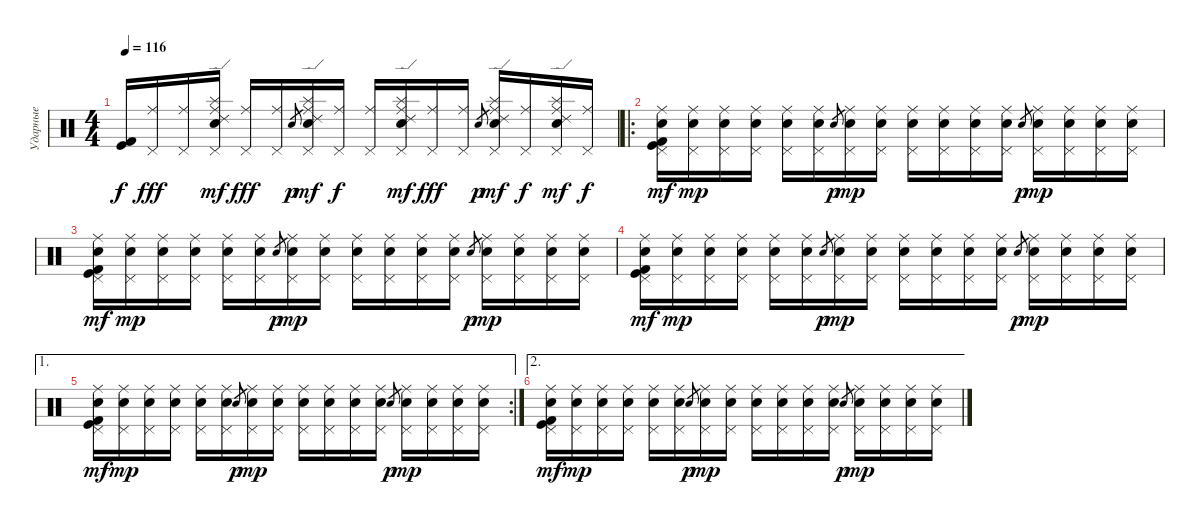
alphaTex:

\track ("Ударные" "Ударные") {instrument percussion}
\staff {score}
\articulation defaults
\ts (4 4)
\tempo 116
\clef neutral
\ks c
("Kick (hit)" "Kick (hit) 2").16{dy f} ("Ride (middle)" "Pedal Hi-Hat (hit)").16{dy fff} ("Ride (middle)" "Pedal Hi-Hat (hit)").16 ("Ride (edge) 2" "Splash (hit)" "Ride (middle)" "Pedal Hi-Hat (hit)" "Electric Snare (hit)").16{dy mf} ("Ride (middle)" "Pedal Hi-Hat (hit)").16{dy fff} ("Ride (middle)" "Pedal Hi-Hat (hit)").16 "Electric Snare (hit)".8{gr dy p} ("Ride (edge) 2" "Splash (hit)" "Ride (middle)" "Pedal Hi-Hat (hit)" "Electric Snare (hit)").16{dy mf} ("Ride (middle)" "Pedal Hi-Hat (hit)").16{dy f} ("Ride (middle)" "Pedal Hi-Hat (hit)").16 ("Ride (edge) 2" "Splash (hit)" "Ride (middle)" "Pedal Hi-Hat (hit)" "Electric Snare (hit)").16{dy mf} ("Ride (middle)" "Pedal Hi-Hat (hit)").16{dy fff} ("Ride (middle)" "Pedal Hi-Hat (hit)").16 "Electric Snare (hit)".8{gr dy p} ("Ride (edge) 2" "Splash (hit)" "Ride (middle)" "Pedal Hi-Hat (hit)" "Electric Snare (hit)").16{dy mf} ("Ride (middle)" "Pedal Hi-Hat (hit)").16{dy f} ("Ride (edge) 2" "Splash (hit)" "Ride (middle)" "Pedal Hi-Hat (hit)" "Electric Snare (hit)").16{dy mf} ("Ride (middle)" "Pedal Hi-Hat (hit)").16{dy f} |
\ro
("Ride (middle)" "Pedal Hi-Hat (hit)" "Kick (hit)" "Kick (hit) 2" "Electric Snare (hit)").16{dy mf} ("Ride (middle)" "Pedal Hi-Hat (hit)" "Electric Snare (hit)").16{dy mp} ("Ride (middle)" "Pedal Hi-Hat (hit)" "Electric Snare (hit)").16 ("Ride (middle)" "Pedal Hi-Hat (hit)" "Electric Snare (hit)").16 ("Ride (middle)" "Pedal Hi-Hat (hit)" "Electric Snare (hit)").16 ("Ride (middle)" "Pedal Hi-Hat (hit)" "Electric Snare (hit)").16 "Electric Snare (hit)".8{gr dy p} ("Ride (middle)" "Pedal Hi-Hat (hit)" "Electric Snare (hit)").16{dy mp} ("Ride (middle)" "Pedal Hi-Hat (hit)" "Electric Snare (hit)").16 ("Ride (middle)" "Pedal Hi-Hat (hit)" "Electric Snare (hit)").16 ("Ride (middle)" "Pedal Hi-Hat (hit)" "Electric Snare (hit)").16 ("Ride (middle)" "Pedal Hi-Hat (hit)" "Electric Snare (hit)").16 ("Ride (middle)" "Pedal Hi-Hat (hit)" "Electric Snare (hit)").16 "Electric Snare (hit)".8{gr dy p} ("Ride (middle)" "Pedal Hi-Hat (hit)" "Electric Snare (hit)").16{dy mp} ("Ride (middle)" "Pedal Hi-Hat (hit)" "Electric Snare (hit)").16 ("Ride (middle)" "Pedal Hi-Hat (hit)" "Electric Snare (hit)").16 ("Ride (middle)" "Pedal Hi-Hat (hit)" "Electric Snare (hit)").16 |
("Ride (middle)" "Pedal Hi-Hat (hit)" "Kick (hit)" "Kick (hit) 2" "Electric Snare (hit)").16{dy mf} ("Ride (middle)" "Pedal Hi-Hat (hit)" "Electric Snare (hit)").16{dy mp} ("Ride (middle)" "Pedal Hi-Hat (hit)" "Electric Snare (hit)").16 ("Ride (middle)" "Pedal Hi-Hat (hit)" "Electric Snare (hit)").16 ("Ride (middle)" "Pedal Hi-Hat (hit)" "Electric Snare (hit)").16 ("Ride (middle)" "Pedal Hi-Hat (hit)" "Electric Snare (hit)").16 "Electric Snare (hit)".8{gr dy p} ("Ride (middle)" "Pedal Hi-Hat (hit)" "Electric Snare (hit)").16{dy mp} ("Ride (middle)" "Pedal Hi-Hat (hit)" "Electric Snare (hit)").16 ("Ride (middle)" "Pedal Hi-Hat (hit)" "Electric Snare (hit)").16 ("Ride (middle)" "Pedal Hi-Hat (hit)" "Electric Snare (hit)").16 ("Ride (middle)" "Pedal Hi-Hat (hit)" "Electric Snare (hit)").16 ("Ride (middle)" "Pedal Hi-Hat (hit)" "Electric Snare (hit)").16 "Electric Snare (hit)".8{gr dy p} ("Ride (middle)" "Pedal Hi-Hat (hit)" "Electric Snare (hit)").16{dy mp} ("Ride (middle)" "Pedal Hi-Hat (hit)" "Electric Snare (hit)").16 ("Ride (middle)" "Pedal Hi-Hat (hit)" "Electric Snare (hit)").16 ("Ride (middle)" "Pedal Hi-Hat (hit)" "Electric Snare (hit)").16 |
("Ride (middle)" "Pedal Hi-Hat (hit)" "Kick (hit)" "Kick (hit) 2" "Electric Snare (hit)").16{dy mf} ("Ride (middle)" "Pedal Hi-Hat (hit)" "Electric Snare (hit)").16{dy mp} ("Ride (middle)" "Pedal Hi-Hat (hit)" "Electric Snare (hit)").16 ("Ride (middle)" "Pedal Hi-Hat (hit)" "Electric Snare (hit)").16 ("Ride (middle)" "Pedal Hi-Hat (hit)" "Electric Snare (hit)").16 ("Ride (middle)" "Pedal Hi-Hat (hit)" "Electric Snare (hit)").16 "Electric Snare (hit)".8{gr dy p} ("Ride (middle)" "Pedal Hi-Hat (hit)" "Electric Snare (hit)").16{dy mp} ("Ride (middle)" "Pedal Hi-Hat (hit)" "Electric Snare (hit)").16 ("Ride (middle)" "Pedal Hi-Hat (hit)" "Electric Snare (hit)").16 ("Ride (middle)" "Pedal Hi-Hat (hit)" "Electric Snare (hit)").16 ("Ride (middle)" "Pedal Hi-Hat (hit)" "Electric Snare (hit)").16 ("Ride (middle)" "Pedal Hi-Hat (hit)" "Electric Snare (hit)").16 "Electric Snare (hit)".8{gr dy p} ("Ride (middle)" "Pedal Hi-Hat (hit)" "Electric Snare (hit)").16{dy mp} ("Ride (middle)" "Pedal Hi-Hat (hit)" "Electric Snare (hit)").16 ("Ride (middle)" "Pedal Hi-Hat (hit)" "Electric Snare (hit)").16 ("Ride (middle)" "Pedal Hi-Hat (hit)" "Electric Snare (hit)").16 |
\ae 1
\rc 2
("Ride (middle)" "Pedal Hi-Hat (hit)" "Kick (hit)" "Kick (hit) 2" "Electric Snare (hit)").16{dy mf} ("Ride (middle)" "Pedal Hi-Hat (hit)" "Electric Snare (hit)").16{dy mp} ("Ride (middle)" "Pedal Hi-Hat (hit)" "Electric Snare (hit)").16 ("Ride (middle)" "Pedal Hi-Hat (hit)" "Electric Snare (hit)").16 ("Ride (middle)" "Pedal Hi-Hat (hit)" "Electric Snare (hit)").16 ("Ride (middle)" "Pedal Hi-Hat (hit)" "Electric Snare (hit)").16 "Electric Snare (hit)".8{gr dy p} ("Ride (middle)" "Pedal Hi-Hat (hit)" "Electric Snare (hit)").16{dy mp} ("Ride (middle)" "Pedal Hi-Hat (hit)" "Electric Snare (hit)").16 ("Ride (middle)" "Pedal Hi-Hat (hit)" "Electric Snare (hit)").16 ("Ride (middle)" "Pedal Hi-Hat (hit)" "Electric Snare (hit)").16 ("Ride (middle)" "Pedal Hi-Hat (hit)" "Electric Snare (hit)").16 ("Ride (middle)" "Pedal Hi-Hat (hit)" "Electric Snare (hit)").16 "Electric Snare (hit)".8{gr dy p} ("Ride (middle)" "Pedal Hi-Hat (hit)" "Electric Snare (hit)").16{dy mp} ("Ride (middle)" "Pedal Hi-Hat (hit)" "Electric Snare (hit)").16 ("Ride (middle)" "Pedal Hi-Hat (hit)" "Electric Snare (hit)").16 ("Ride (middle)" "Pedal Hi-Hat (hit)" "Electric Snare (hit)").16 |
\ae 2
("Ride (middle)" "Pedal Hi-Hat (hit)" "Kick (hit)" "Kick (hit) 2" "Electric Snare (hit)").16{dy mf} ("Ride (middle)" "Pedal Hi-Hat (hit)" "Electric Snare (hit)").16{dy mp} ("Ride (middle)" "Pedal Hi-Hat (hit)" "Electric Snare (hit)").16 ("Ride (middle)" "Pedal Hi-Hat (hit)" "Electric Snare (hit)").16 ("Ride (middle)" "Pedal Hi-Hat (hit)" "Electric Snare (hit)").16 ("Ride (middle)" "Pedal Hi-Hat (hit)" "Electric Snare (hit)").16 "Electric Snare (hit)".8{gr dy p} ("Ride (middle)" "Pedal Hi-Hat (hit)" "Electric Snare (hit)").16{dy mp} ("Ride (middle)" "Pedal Hi-Hat (hit)" "Electric Snare (hit)").16 ("Ride (middle)" "Pedal Hi-Hat (hit)" "Electric Snare (hit)").16 ("Ride (middle)" "Pedal Hi-Hat (hit)" "Electric Snare (hit)").16 ("Ride (middle)" "Pedal Hi-Hat (hit)" "Electric Snare (hit)").16 ("Ride (middle)" "Pedal Hi-Hat (hit)" "Electric Snare (hit)").16 "Electric Snare (hit)".8{gr dy p} ("Ride (middle)" "Pedal Hi-Hat (hit)" "Electric Snare (hit)").16{dy mp} ("Ride (middle)" "Pedal Hi-Hat (hit)" "Electric Snare (hit)").16 ("Ride (middle)" "Pedal Hi-Hat (hit)" "Electric Snare (hit)").16 ("Ride (middle)" "Pedal Hi-Hat (hit)" "Electric Snare (hit)").16
